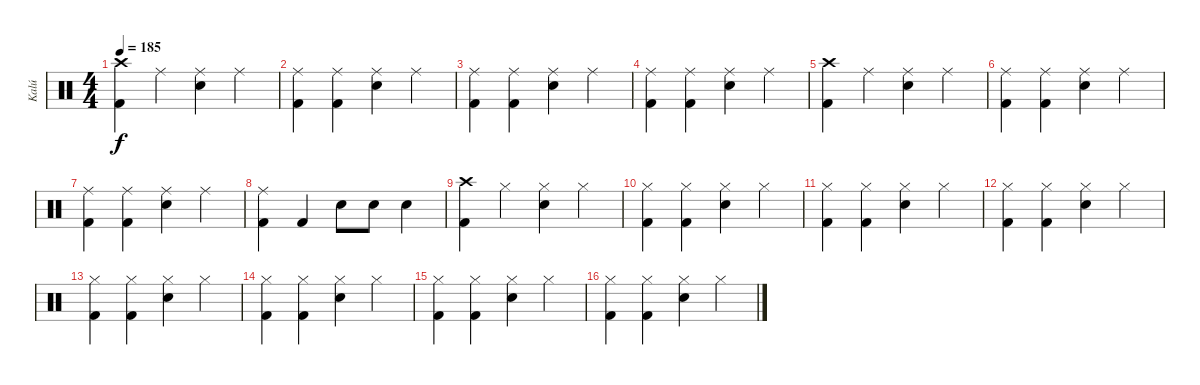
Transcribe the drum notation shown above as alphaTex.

\track ("Kalú" "Kalú") {instrument percussion}
\staff {score}
\articulation defaults
\ts (4 4)
\tempo 185
\clef neutral
\ks c
("Crash high (hit)" "Kick (hit) 2").4{dy f} "Ride (middle)".4 ("Ride (middle)" "Snare (hit) 2").4 "Ride (middle)".4 |
("Ride (middle)" "Kick (hit) 2").4 ("Ride (middle)" "Kick (hit) 2").4 ("Ride (middle)" "Snare (hit) 2").4 "Ride (middle)".4 |
("Ride (middle)" "Kick (hit) 2").4 ("Ride (middle)" "Kick (hit) 2").4 ("Ride (middle)" "Snare (hit) 2").4 "Ride (middle)".4 |
("Ride (middle)" "Kick (hit) 2").4 ("Ride (middle)" "Kick (hit) 2").4 ("Ride (middle)" "Snare (hit) 2").4 "Ride (middle)".4 |
("Crash high (hit)" "Kick (hit) 2").4 "Ride (middle)".4 ("Ride (middle)" "Snare (hit) 2").4 "Ride (middle)".4 |
("Ride (middle)" "Kick (hit) 2").4 ("Ride (middle)" "Kick (hit) 2").4 ("Ride (middle)" "Snare (hit) 2").4 "Ride (middle)".4 |
("Ride (middle)" "Kick (hit) 2").4 ("Ride (middle)" "Kick (hit) 2").4 ("Ride (middle)" "Snare (hit) 2").4 "Ride (middle)".4 |
("Ride (middle)" "Kick (hit) 2").4 "Kick (hit) 2".4 "Snare (hit) 2".8 "Snare (hit) 2".8 "Snare (hit) 2".4 |
("Crash high (hit)" "Kick (hit) 2").4 "Hi-Hat (closed)".4 ("Hi-Hat (closed)" "Snare (hit) 2").4 "Hi-Hat (closed)".4 |
("Hi-Hat (closed)" "Kick (hit) 2").4 ("Hi-Hat (closed)" "Kick (hit) 2").4 ("Hi-Hat (closed)" "Snare (hit) 2").4 "Hi-Hat (closed)".4 |
("Hi-Hat (closed)" "Kick (hit) 2").4 ("Hi-Hat (closed)" "Kick (hit) 2").4 ("Hi-Hat (closed)" "Snare (hit) 2").4 "Hi-Hat (closed)".4 |
("Hi-Hat (closed)" "Kick (hit) 2").4 ("Hi-Hat (closed)" "Kick (hit) 2").4 ("Hi-Hat (closed)" "Snare (hit) 2").4 "Hi-Hat (closed)".4 |
("Hi-Hat (closed)" "Kick (hit) 2").4 ("Hi-Hat (closed)" "Kick (hit) 2").4 ("Hi-Hat (closed)" "Snare (hit) 2").4 "Hi-Hat (closed)".4 |
("Hi-Hat (closed)" "Kick (hit) 2").4 ("Hi-Hat (closed)" "Kick (hit) 2").4 ("Hi-Hat (closed)" "Snare (hit) 2").4 "Hi-Hat (closed)".4 |
("Hi-Hat (closed)" "Kick (hit) 2").4 ("Hi-Hat (closed)" "Kick (hit) 2").4 ("Hi-Hat (closed)" "Snare (hit) 2").4 "Hi-Hat (closed)".4 |
("Hi-Hat (closed)" "Kick (hit) 2").4 ("Hi-Hat (closed)" "Kick (hit) 2").4 ("Hi-Hat (closed)" "Snare (hit) 2").4 "Hi-Hat (closed)".4
